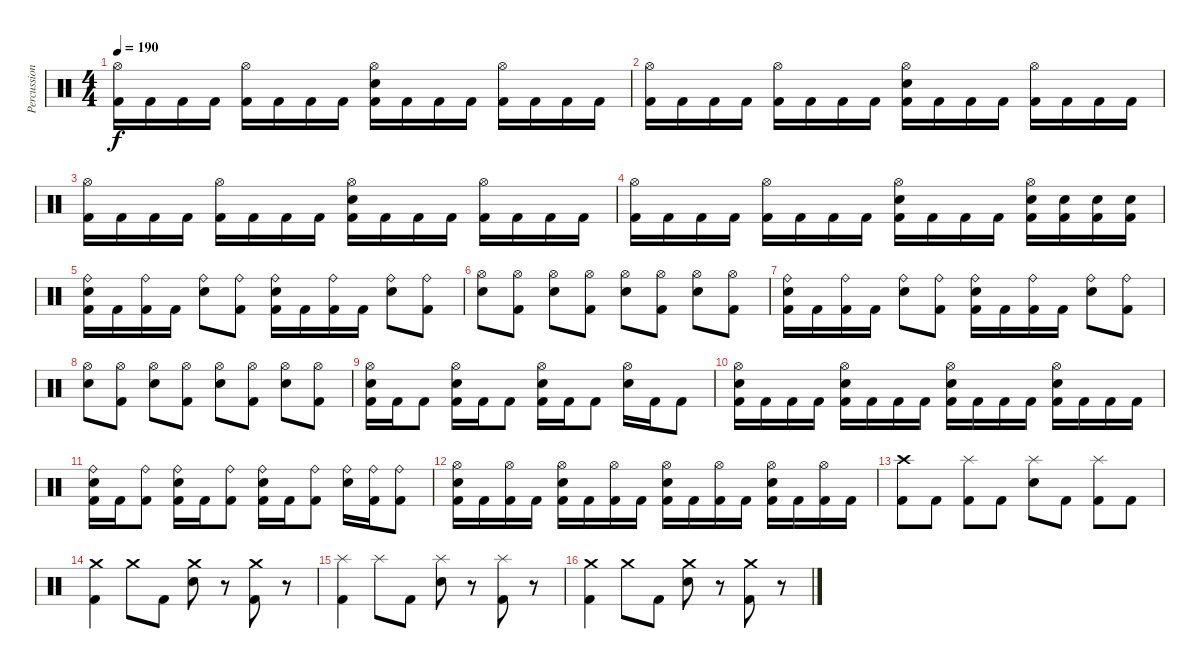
\track ("Percussion" "Percussion") {instrument percussion}
\staff {score}
\articulation defaults
\ts (4 4)
\tempo 190
\clef neutral
\ks c
("Hi-Hat (open)" "Kick (hit) 2").16{dy f} "Kick (hit) 2".16 "Kick (hit) 2".16 "Kick (hit) 2".16 ("Hi-Hat (open)" "Kick (hit) 2").16 "Kick (hit) 2".16 "Kick (hit) 2".16 "Kick (hit) 2".16 ("Hi-Hat (open)" "Electric Snare (hit)" "Kick (hit) 2").16 "Kick (hit) 2".16 "Kick (hit) 2".16 "Kick (hit) 2".16 ("Hi-Hat (open)" "Kick (hit) 2").16 "Kick (hit) 2".16 "Kick (hit) 2".16 "Kick (hit) 2".16 |
("Hi-Hat (open)" "Kick (hit) 2").16 "Kick (hit) 2".16 "Kick (hit) 2".16 "Kick (hit) 2".16 ("Hi-Hat (open)" "Kick (hit) 2").16 "Kick (hit) 2".16 "Kick (hit) 2".16 "Kick (hit) 2".16 ("Hi-Hat (open)" "Electric Snare (hit)" "Kick (hit) 2").16 "Kick (hit) 2".16 "Kick (hit) 2".16 "Kick (hit) 2".16 ("Hi-Hat (open)" "Kick (hit) 2").16 "Kick (hit) 2".16 "Kick (hit) 2".16 "Kick (hit) 2".16 |
("Hi-Hat (open)" "Kick (hit) 2").16 "Kick (hit) 2".16 "Kick (hit) 2".16 "Kick (hit) 2".16 ("Hi-Hat (open)" "Kick (hit) 2").16 "Kick (hit) 2".16 "Kick (hit) 2".16 "Kick (hit) 2".16 ("Hi-Hat (open)" "Electric Snare (hit)" "Kick (hit) 2").16 "Kick (hit) 2".16 "Kick (hit) 2".16 "Kick (hit) 2".16 ("Hi-Hat (open)" "Kick (hit) 2").16 "Kick (hit) 2".16 "Kick (hit) 2".16 "Kick (hit) 2".16 |
("Hi-Hat (open)" "Kick (hit) 2").16 "Kick (hit) 2".16 "Kick (hit) 2".16 "Kick (hit) 2".16 ("Hi-Hat (open)" "Kick (hit) 2").16 "Kick (hit) 2".16 "Kick (hit) 2".16 "Kick (hit) 2".16 ("Hi-Hat (open)" "Electric Snare (hit)" "Kick (hit) 2").16 "Kick (hit) 2".16 "Kick (hit) 2".16 "Kick (hit) 2".16 ("Hi-Hat (open)" "Electric Snare (hit)" "Kick (hit) 2").16 ("Electric Snare (hit)" "Kick (hit) 2").16 ("Electric Snare (hit)" "Kick (hit) 2").16 ("Electric Snare (hit)" "Kick (hit) 2").16 |
("Ride (bell)" "Electric Snare (hit)" "Kick (hit) 2").16 "Kick (hit) 2".16 ("Ride (bell)" "Kick (hit) 2").16 "Kick (hit) 2".16 ("Ride (bell)" "Electric Snare (hit)").8 ("Ride (bell)" "Kick (hit) 2").8 ("Ride (bell)" "Electric Snare (hit)" "Kick (hit) 2").16 "Kick (hit) 2".16 ("Ride (bell)" "Kick (hit) 2").16 "Kick (hit) 2".16 ("Ride (bell)" "Electric Snare (hit)").8 ("Ride (bell)" "Kick (hit) 2").8 |
("Hi-Hat (open)" "Electric Snare (hit)").8 ("Hi-Hat (open)" "Kick (hit) 2").8 ("Hi-Hat (open)" "Electric Snare (hit)").8 ("Hi-Hat (open)" "Kick (hit) 2").8 ("Hi-Hat (open)" "Electric Snare (hit)").8 ("Hi-Hat (open)" "Kick (hit) 2").8 ("Hi-Hat (open)" "Electric Snare (hit)").8 ("Hi-Hat (open)" "Kick (hit) 2").8 |
("Ride (bell)" "Electric Snare (hit)" "Kick (hit) 2").16 "Kick (hit) 2".16 ("Ride (bell)" "Kick (hit) 2").16 "Kick (hit) 2".16 ("Ride (bell)" "Electric Snare (hit)").8 ("Ride (bell)" "Kick (hit) 2").8 ("Ride (bell)" "Electric Snare (hit)" "Kick (hit) 2").16 "Kick (hit) 2".16 ("Ride (bell)" "Kick (hit) 2").16 "Kick (hit) 2".16 ("Ride (bell)" "Electric Snare (hit)").8 ("Ride (bell)" "Kick (hit) 2").8 |
("Hi-Hat (open)" "Electric Snare (hit)").8 ("Hi-Hat (open)" "Kick (hit) 2").8 ("Hi-Hat (open)" "Electric Snare (hit)").8 ("Hi-Hat (open)" "Kick (hit) 2").8 ("Hi-Hat (open)" "Electric Snare (hit)").8 ("Hi-Hat (open)" "Kick (hit) 2").8 ("Hi-Hat (open)" "Electric Snare (hit)").8 ("Hi-Hat (open)" "Kick (hit) 2").8 |
("Hi-Hat (open)" "Electric Snare (hit)" "Kick (hit) 2").16 "Kick (hit) 2".16 "Kick (hit) 2".8 ("Hi-Hat (open)" "Electric Snare (hit)" "Kick (hit) 2").16 "Kick (hit) 2".16 "Kick (hit) 2".8 ("Hi-Hat (open)" "Electric Snare (hit)" "Kick (hit) 2").16 "Kick (hit) 2".16 "Kick (hit) 2".8 ("Hi-Hat (open)" "Electric Snare (hit)").16 "Kick (hit) 2".16 "Kick (hit) 2".8 |
("Hi-Hat (open)" "Electric Snare (hit)" "Kick (hit) 2").16 "Kick (hit) 2".16 "Kick (hit) 2".16 "Kick (hit) 2".16 ("Hi-Hat (open)" "Electric Snare (hit)" "Kick (hit) 2").16 "Kick (hit) 2".16 "Kick (hit) 2".16 "Kick (hit) 2".16 ("Hi-Hat (open)" "Electric Snare (hit)" "Kick (hit) 2").16 "Kick (hit) 2".16 "Kick (hit) 2".16 "Kick (hit) 2".16 ("Hi-Hat (open)" "Electric Snare (hit)" "Kick (hit) 2").16 "Kick (hit) 2".16 "Kick (hit) 2".16 "Kick (hit) 2".16 |
("Ride (bell)" "Electric Snare (hit)" "Kick (hit) 2").16 "Kick (hit) 2".16 ("Ride (bell)" "Kick (hit) 2").8 ("Ride (bell)" "Electric Snare (hit)" "Kick (hit) 2").16 "Kick (hit) 2".16 ("Ride (bell)" "Kick (hit) 2").8 ("Ride (bell)" "Electric Snare (hit)" "Kick (hit) 2").16 "Kick (hit) 2".16 ("Ride (bell)" "Kick (hit) 2").8 ("Ride (bell)" "Electric Snare (hit)").16 ("Ride (bell)" "Kick (hit) 2").16 ("Ride (bell)" "Kick (hit) 2").8 |
("Hi-Hat (open)" "Electric Snare (hit)" "Kick (hit) 2").16 "Kick (hit) 2".16 ("Hi-Hat (open)" "Kick (hit) 2").16 "Kick (hit) 2".16 ("Hi-Hat (open)" "Electric Snare (hit)" "Kick (hit) 2").16 "Kick (hit) 2".16 ("Hi-Hat (open)" "Kick (hit) 2").16 "Kick (hit) 2".16 ("Hi-Hat (open)" "Electric Snare (hit)" "Kick (hit) 2").16 "Kick (hit) 2".16 ("Hi-Hat (open)" "Kick (hit) 2").16 "Kick (hit) 2".16 ("Hi-Hat (open)" "Electric Snare (hit)" "Kick (hit) 2").16 "Kick (hit) 2".16 ("Hi-Hat (open)" "Kick (hit) 2").16 "Kick (hit) 2".16 |
("Crash high (hit)" "Kick (hit) 2").8 "Kick (hit) 2".8 ("Splash (hit)" "Kick (hit) 2").8 "Kick (hit) 2".8 ("Splash (hit)" "Electric Snare (hit)").8 "Kick (hit) 2".8 ("Splash (hit)" "Kick (hit) 2").8 "Kick (hit) 2".8 |
("Crash medium (hit)" "Kick (hit) 2").4 "Crash medium (hit)".8 "Kick (hit) 2".8 ("Crash medium (hit)" "Electric Snare (hit)").8 r.8 ("Crash medium (hit)" "Kick (hit) 2").8 r.8 |
("Splash (hit)" "Kick (hit) 2").4 "Splash (hit)".8 "Kick (hit) 2".8 ("Splash (hit)" "Electric Snare (hit)").8 r.8 ("Splash (hit)" "Kick (hit) 2").8 r.8 |
("Crash medium (hit)" "Kick (hit) 2").4 "Crash medium (hit)".8 "Kick (hit) 2".8 ("Crash medium (hit)" "Electric Snare (hit)").8 r.8 ("Crash medium (hit)" "Kick (hit) 2").8 r.8
